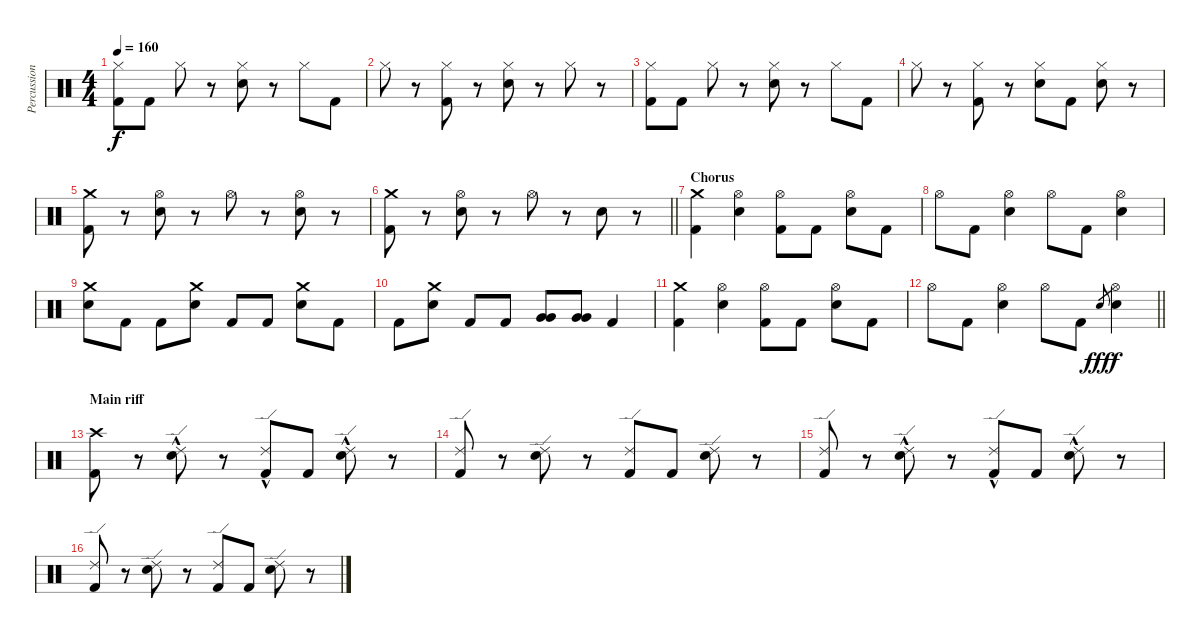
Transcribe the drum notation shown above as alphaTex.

\track ("Percussion" "Percussion") {instrument percussion}
\staff {score}
\articulation defaults
\ts (4 4)
\tempo 160
\clef neutral
\ks c
("Hi-Hat (closed)" "Kick (hit) 2").8{dy f} "Kick (hit) 2".8 "Hi-Hat (closed)".8 r.8 ("Hi-Hat (closed)" "Electric Snare (hit)").8 r.8 "Hi-Hat (closed)".8 "Kick (hit) 2".8 |
"Hi-Hat (closed)".8 r.8 ("Hi-Hat (closed)" "Kick (hit) 2").8 r.8 ("Hi-Hat (closed)" "Electric Snare (hit)").8 r.8 "Hi-Hat (closed)".8 r.8 |
("Hi-Hat (closed)" "Kick (hit) 2").8 "Kick (hit) 2".8 "Hi-Hat (closed)".8 r.8 ("Hi-Hat (closed)" "Electric Snare (hit)").8 r.8 "Hi-Hat (closed)".8 "Kick (hit) 2".8 |
"Hi-Hat (closed)".8 r.8 ("Hi-Hat (closed)" "Kick (hit) 2").8 r.8 ("Hi-Hat (closed)" "Electric Snare (hit)").8 "Kick (hit) 2".8 ("Hi-Hat (closed)" "Electric Snare (hit)").8 r.8 |
("Crash medium (hit)" "Kick (hit) 2").8 r.8 ("Hi-Hat (open)" "Electric Snare (hit)").8 r.8 "Hi-Hat (open)".8 r.8 ("Hi-Hat (open)" "Electric Snare (hit)").8 r.8 |
\barLineRight lightlight
("Crash medium (hit)" "Kick (hit) 2").8 r.8 ("Hi-Hat (open)" "Electric Snare (hit)").8 r.8 "Hi-Hat (open)".8 r.8 "Electric Snare (hit)".8 r.8 |
\section ("" "Chorus")
("Crash medium (hit)" "Kick (hit) 2").4 ("Hi-Hat (open)" "Electric Snare (hit)").4 ("Hi-Hat (open)" "Kick (hit) 2").8 "Kick (hit) 2".8 ("Hi-Hat (open)" "Electric Snare (hit)").8 "Kick (hit) 2".8 |
"Hi-Hat (open)".8 "Kick (hit) 2".8 ("Hi-Hat (open)" "Electric Snare (hit)").4 "Hi-Hat (open)".8 "Kick (hit) 2".8 ("Hi-Hat (open)" "Electric Snare (hit)").4 |
("Crash medium (hit)" "Electric Snare (hit)").8 "Kick (hit) 2".8 "Kick (hit) 2".8 ("Crash medium (hit)" "Electric Snare (hit)").8 "Kick (hit) 2".8 "Kick (hit) 2".8 ("Crash medium (hit)" "Electric Snare (hit)").8 "Kick (hit) 2".8 |
"Kick (hit) 2".8 ("Crash medium (hit)" "Electric Snare (hit)").8 "Kick (hit) 2".8 "Kick (hit) 2".8 ("Very Low Tom (hit)" "Very Low Tom (hit)").8 ("Very Low Tom (hit)" "Very Low Tom (hit)").8 "Kick (hit) 2".4 |
("Crash medium (hit)" "Kick (hit) 2").4 ("Hi-Hat (open)" "Electric Snare (hit)").4 ("Hi-Hat (open)" "Kick (hit) 2").8 "Kick (hit) 2".8 ("Hi-Hat (open)" "Electric Snare (hit)").8 "Kick (hit) 2".8 |
\barLineRight lightlight "Hi-Hat (open)".8 "Kick (hit) 2".8
("Hi-Hat (open)" "Electric Snare (hit)").4 "Hi-Hat (open)".8 "Kick (hit) 2".8 "Electric Snare (hit)".8{gr dy fff} ("Hi-Hat (open)" "Electric Snare (hit)").4{dy f} |
\section ("" "Main riff")
("Crash high (hit)" "Kick (hit) 2").8 r.8 ("Ride (edge) 2"{hac} "Electric Snare (hit)").8 r.8 ("Ride (edge) 2"{hac} "Kick (hit) 2").8 "Kick (hit) 2".8 ("Ride (edge) 2"{hac} "Electric Snare (hit)").8 r.8 |
("Ride (edge) 2" "Kick (hit) 2").8 r.8 ("Ride (edge) 2" "Electric Snare (hit)").8 r.8 ("Ride (edge) 2" "Kick (hit) 2").8 "Kick (hit) 2".8 ("Ride (edge) 2" "Electric Snare (hit)").8 r.8 |
("Ride (edge) 2" "Kick (hit) 2").8 r.8 ("Ride (edge) 2"{hac} "Electric Snare (hit)").8 r.8 ("Ride (edge) 2"{hac} "Kick (hit) 2").8 "Kick (hit) 2".8 ("Ride (edge) 2"{hac} "Electric Snare (hit)").8 r.8 |
("Ride (edge) 2" "Kick (hit) 2").8 r.8 ("Ride (edge) 2" "Electric Snare (hit)").8 r.8 ("Ride (edge) 2" "Kick (hit) 2").8 "Kick (hit) 2".8 ("Ride (edge) 2" "Electric Snare (hit)").8 r.8
